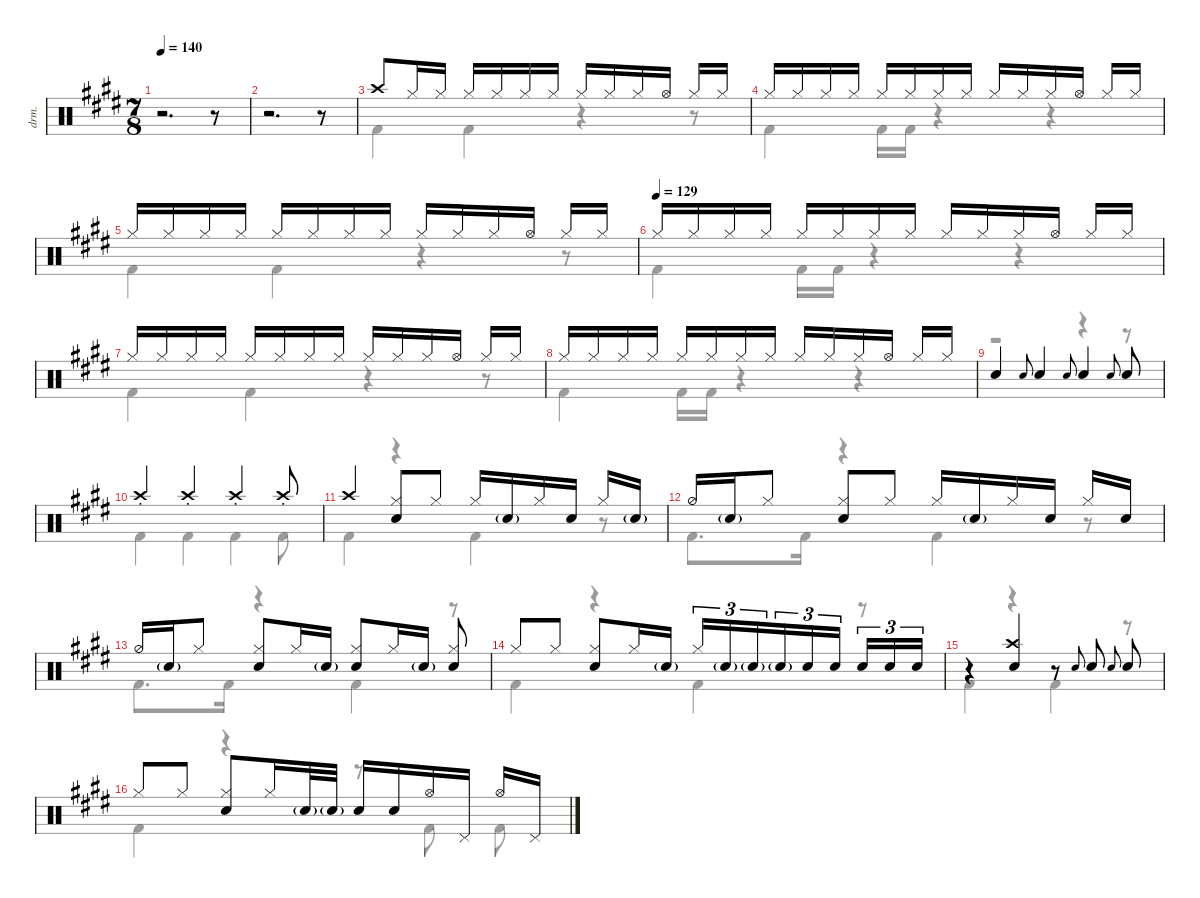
\defaultSystemsLayout 4
\hideDynamics
\bracketExtendMode nobrackets
\track ("Drums" "drm.") {instrument percussion}
\staff {score}
\articulation defaults
\voice
\ts (7 8)
\tempo 140
\clef neutral
\ks e
r.2{d dy mf} r.8 |
r.2{d} r.8 |
"Crash high (hit)"{acc forcenatural}.8 "Hi-Hat (closed)"{acc forcenatural}.16 "Hi-Hat (closed)"{acc forcenatural}.16{beam split} "Hi-Hat (closed)"{acc forcenatural}.16 "Hi-Hat (closed)"{acc forcenatural}.16{beam merge} "Hi-Hat (closed)"{acc forcenatural}.16 "Hi-Hat (closed)"{acc forcenatural}.16{beam split} "Hi-Hat (closed)"{acc forcenatural}.16 "Hi-Hat (closed)"{acc forcenatural}.16{beam merge} "Hi-Hat (closed)"{acc forcenatural}.16 "Hi-Hat (open)"{acc forcenatural}.16{beam split} "Hi-Hat (closed)"{acc forcenatural}.16 "Hi-Hat (closed)"{acc forcenatural}.16 |
"Hi-Hat (closed)"{acc forcenatural}.16 "Hi-Hat (closed)"{acc forcenatural}.16{beam merge} "Hi-Hat (closed)"{acc forcenatural}.16 "Hi-Hat (closed)"{acc forcenatural}.16{beam split} "Hi-Hat (closed)"{acc forcenatural}.16 "Hi-Hat (closed)"{acc forcenatural}.16{beam merge} "Hi-Hat (closed)"{acc forcenatural}.16 "Hi-Hat (closed)"{acc forcenatural}.16{beam split} "Hi-Hat (closed)"{acc forcenatural}.16 "Hi-Hat (closed)"{acc forcenatural}.16{beam merge} "Hi-Hat (closed)"{acc forcenatural}.16 "Hi-Hat (open)"{acc forcenatural}.16{beam split} "Hi-Hat (closed)"{acc forcenatural}.16 "Hi-Hat (closed)"{acc forcenatural}.16 |
"Hi-Hat (closed)"{acc forcenatural}.16 "Hi-Hat (closed)"{acc forcenatural}.16{beam merge} "Hi-Hat (closed)"{acc forcenatural}.16 "Hi-Hat (closed)"{acc forcenatural}.16{beam split} "Hi-Hat (closed)"{acc forcenatural}.16 "Hi-Hat (closed)"{acc forcenatural}.16{beam merge} "Hi-Hat (closed)"{acc forcenatural}.16 "Hi-Hat (closed)"{acc forcenatural}.16{beam split} "Hi-Hat (closed)"{acc forcenatural}.16 "Hi-Hat (closed)"{acc forcenatural}.16{beam merge} "Hi-Hat (closed)"{acc forcenatural}.16 "Hi-Hat (open)"{acc forcenatural}.16{beam split} "Hi-Hat (closed)"{acc forcenatural}.16 "Hi-Hat (closed)"{acc forcenatural}.16 |
\tempo (129)
"Hi-Hat (closed)"{acc forcenatural}.16 "Hi-Hat (closed)"{acc forcenatural}.16{beam merge} "Hi-Hat (closed)"{acc forcenatural}.16 "Hi-Hat (closed)"{acc forcenatural}.16{beam split} "Hi-Hat (closed)"{acc forcenatural}.16 "Hi-Hat (closed)"{acc forcenatural}.16{beam merge} "Hi-Hat (closed)"{acc forcenatural}.16 "Hi-Hat (closed)"{acc forcenatural}.16{beam split} "Hi-Hat (closed)"{acc forcenatural}.16 "Hi-Hat (closed)"{acc forcenatural}.16{beam merge} "Hi-Hat (closed)"{acc forcenatural}.16 "Hi-Hat (open)"{acc forcenatural}.16{beam split} "Hi-Hat (closed)"{acc forcenatural}.16 "Hi-Hat (closed)"{acc forcenatural}.16 |
"Hi-Hat (closed)"{acc forcenatural}.16 "Hi-Hat (closed)"{acc forcenatural}.16{beam merge} "Hi-Hat (closed)"{acc forcenatural}.16 "Hi-Hat (closed)"{acc forcenatural}.16{beam split} "Hi-Hat (closed)"{acc forcenatural}.16 "Hi-Hat (closed)"{acc forcenatural}.16{beam merge} "Hi-Hat (closed)"{acc forcenatural}.16 "Hi-Hat (closed)"{acc forcenatural}.16{beam split} "Hi-Hat (closed)"{acc forcenatural}.16 "Hi-Hat (closed)"{acc forcenatural}.16{beam merge} "Hi-Hat (closed)"{acc forcenatural}.16 "Hi-Hat (open)"{acc forcenatural}.16{beam split} "Hi-Hat (closed)"{acc forcenatural}.16 "Hi-Hat (closed)"{acc forcenatural}.16 |
"Hi-Hat (closed)"{acc forcenatural}.16 "Hi-Hat (closed)"{acc forcenatural}.16{beam merge} "Hi-Hat (closed)"{acc forcenatural}.16 "Hi-Hat (closed)"{acc forcenatural}.16{beam split} "Hi-Hat (closed)"{acc forcenatural}.16 "Hi-Hat (closed)"{acc forcenatural}.16{beam merge} "Hi-Hat (closed)"{acc forcenatural}.16 "Hi-Hat (closed)"{acc forcenatural}.16{beam split} "Hi-Hat (closed)"{acc forcenatural}.16 "Hi-Hat (closed)"{acc forcenatural}.16{beam merge} "Hi-Hat (closed)"{acc forcenatural}.16 "Hi-Hat (open)"{acc forcenatural}.16{beam split} "Hi-Hat (closed)"{acc forcenatural}.16 "Hi-Hat (closed)"{acc forcenatural}.16 |
"Snare (hit) 2"{acc forcenatural}.4 "Snare (hit) 2"{acc forcenatural}.8{gr onbeat} "Snare (hit) 2"{acc forcenatural}.4 "Snare (hit) 2"{acc forcenatural}.8{gr onbeat} "Snare (hit) 2"{acc forcenatural}.4 "Snare (hit) 2"{acc forcenatural}.8{gr onbeat} "Snare (hit) 2"{acc forcenatural}.8 |
"Crash high (hit)"{st acc forcenatural}.4 "Crash high (hit)"{st acc forcenatural}.4 "Crash high (hit)"{st acc forcenatural}.4 "Crash high (hit)"{st acc forcenatural}.8 |
"Crash high (hit)"{acc forcenatural}.4 ("Hi-Hat (closed)"{acc forcenatural} "Snare (hit) 2"{acc forcenatural}).8{beam merge} "Hi-Hat (closed)"{acc forcenatural}.8{beam split} "Hi-Hat (closed)"{acc forcenatural}.16 "Snare (hit) 2"{g acc forcenatural}.16{beam merge} "Hi-Hat (closed)"{acc forcenatural}.16 "Snare (hit) 2"{acc forcenatural}.16{beam split} "Hi-Hat (closed)"{acc forcenatural}.16 "Snare (hit) 2"{g acc forcenatural}.16 |
"Hi-Hat (half)"{acc forcenatural}.16 "Snare (hit) 2"{g acc forcenatural}.16 "Hi-Hat (closed)"{acc forcenatural}.8{beam split} ("Hi-Hat (closed)"{acc forcenatural} "Snare (hit) 2"{acc forcenatural}).8{beam merge} "Hi-Hat (closed)"{acc forcenatural}.8{beam split} "Hi-Hat (closed)"{acc forcenatural}.16 "Snare (hit) 2"{g acc forcenatural}.16{beam merge} "Hi-Hat (closed)"{acc forcenatural}.16 "Snare (hit) 2"{acc forcenatural}.16{beam split} "Hi-Hat (closed)"{acc forcenatural}.16 "Snare (hit) 2"{acc forcenatural}.16 |
"Hi-Hat (half)"{acc forcenatural}.16 "Snare (hit) 2"{g acc forcenatural}.16 "Hi-Hat (closed)"{acc forcenatural}.8{beam split} ("Hi-Hat (closed)"{acc forcenatural} "Snare (hit) 2"{acc forcenatural}).8{beam merge} "Hi-Hat (closed)"{acc forcenatural}.16 "Snare (hit) 2"{g acc forcenatural}.16{beam split} ("Hi-Hat (closed)"{acc forcenatural} "Snare (hit) 2"{acc forcenatural}).8{beam merge} "Hi-Hat (closed)"{acc forcenatural}.16 "Snare (hit) 2"{g acc forcenatural}.16{beam split} ("Snare (hit) 2"{acc forcenatural} "Hi-Hat (closed)"{acc forcenatural}).8 |
"Hi-Hat (closed)"{acc forcenatural}.8 "Hi-Hat (closed)"{acc forcenatural}.8{beam split} ("Hi-Hat (closed)"{acc forcenatural} "Snare (hit) 2"{acc forcenatural}).8{beam merge} "Hi-Hat (closed)"{acc forcenatural}.16 "Snare (hit) 2"{g acc forcenatural}.16 "Hi-Hat (closed)"{acc forcenatural}.16{tu (3 2)} "Snare (hit) 2"{g acc forcenatural}.16{tu (3 2)} "Snare (hit) 2"{g acc forcenatural}.16{tu (3 2) beam merge} "Snare (hit) 2"{g acc forcenatural}.16{tu (3 2)} "Snare (hit) 2"{acc forcenatural}.16{tu (3 2)} "Snare (hit) 2"{acc forcenatural}.16{tu (3 2)} "Snare (hit) 2"{acc forcenatural}.16{tu (3 2)} "Snare (hit) 2"{acc forcenatural}.16{tu (3 2)} "Snare (hit) 2"{acc forcenatural}.16{tu (3 2)} |
r.4 ("Snare (hit) 2"{acc forcenatural} "Crash high (hit)"{acc forcenatural}).4 r.8 "Snare (hit) 2"{acc forcenatural}.8{gr onbeat} "Snare (hit) 2"{acc forcenatural}.8{beam split} "Snare (hit) 2"{acc forcenatural}.8{gr onbeat beam split} "Snare (hit) 2"{acc forcenatural}.8 |
"Hi-Hat (closed)"{acc forcenatural}.8 "Hi-Hat (closed)"{acc forcenatural}.8{beam split} ("Hi-Hat (closed)"{acc forcenatural} "Snare (hit) 2"{acc forcenatural}).8 "Hi-Hat (closed)"{acc forcenatural}.16 "Snare (hit) 2"{g acc forcenatural}.32 "Snare (hit) 2"{g acc forcenatural}.32{beam split} "Snare (hit) 2"{acc forcenatural}.16 "Snare (hit) 2"{acc forcenatural}.16{beam merge} "Hi-Hat (open)"{acc forcenatural}.16 "Pedal Hi-Hat (hit)"{acc forcenatural}.16{beam split} "Hi-Hat (open)"{acc forcenatural}.16 "Pedal Hi-Hat (hit)"{acc forcenatural}.16
\voice
\clef neutral
\ottava regular
\simile none
\ks e
r.2{d dy mf} r.8 |
r.2{d} r.8 |
"Kick (hit) 2"{acc forcenatural}.4 "Kick (hit) 2"{acc forcenatural}.4 r.4 r.8 |
"Kick (hit) 2"{acc forcenatural}.4 "Kick (hit) 2"{acc forcenatural}.16 "Kick (hit) 2"{acc forcenatural}.16 r.4 r.4 |
"Kick (hit) 2"{acc forcenatural}.4 "Kick (hit) 2"{acc forcenatural}.4 r.4 r.8 |
"Kick (hit) 2"{acc forcenatural}.4 "Kick (hit) 2"{acc forcenatural}.16 "Kick (hit) 2"{acc forcenatural}.16 r.4 r.4 |
"Kick (hit) 2"{acc forcenatural}.4 "Kick (hit) 2"{acc forcenatural}.4 r.4 r.8 |
"Kick (hit) 2"{acc forcenatural}.4 "Kick (hit) 2"{acc forcenatural}.16 "Kick (hit) 2"{acc forcenatural}.16 r.4 r.4 |
r.2 r.4 r.8 |
"Kick (hit) 2"{acc forcenatural}.4 "Kick (hit) 2"{acc forcenatural}.4 "Kick (hit) 2"{acc forcenatural}.4 "Kick (hit) 2"{acc forcenatural}.8 |
"Kick (hit) 2"{acc forcenatural}.4 r.4 "Kick (hit) 2"{acc forcenatural}.4 r.8 |
"Kick (hit) 2"{acc forcenatural}.8{d} "Kick (hit) 2"{acc forcenatural}.16 r.4 "Kick (hit) 2"{acc forcenatural}.4 r.8 |
"Kick (hit) 2"{acc forcenatural}.8{d} "Kick (hit) 2"{acc forcenatural}.16 r.4 "Kick (hit) 2"{acc forcenatural}.4 r.8 |
"Kick (hit) 2"{acc forcenatural}.4 r.4 "Kick (hit) 2"{acc forcenatural}.4 r.8 |
"Kick (hit) 2"{acc forcenatural}.4 r.4 "Kick (hit) 2"{acc forcenatural}.4 r.8 |
"Kick (hit) 2"{acc forcenatural}.4 r.4 r.8 "Kick (hit) 2"{acc forcenatural}.8{beam split} "Kick (hit) 2"{acc forcenatural}.8
